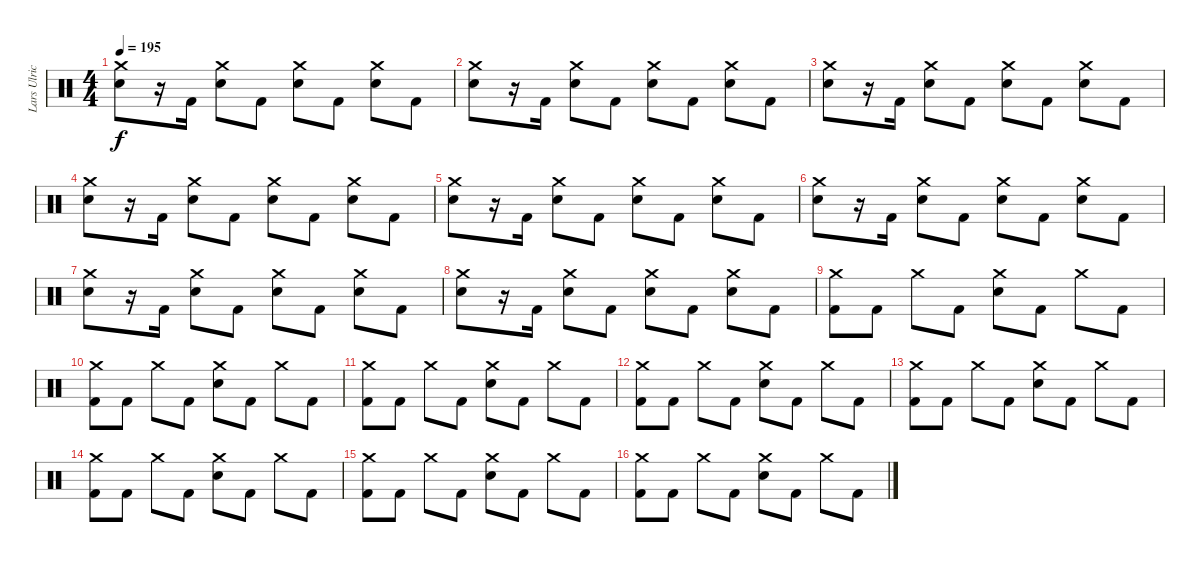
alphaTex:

\track ("Lars Ulrich" "Lars Ulric") {instrument percussion}
\staff {score}
\articulation defaults
\ts (4 4)
\tempo 195
\clef neutral
\ks c
("Crash medium (hit)" "Electric Snare (hit)").8{dy f} r.16 "Kick (hit) 2".16 ("Crash medium (hit)" "Electric Snare (hit)").8 "Kick (hit) 2".8 ("Crash medium (hit)" "Electric Snare (hit)").8 "Kick (hit) 2".8 ("Crash medium (hit)" "Electric Snare (hit)").8 "Kick (hit) 2".8 |
("Crash medium (hit)" "Electric Snare (hit)").8 r.16 "Kick (hit) 2".16 ("Crash medium (hit)" "Electric Snare (hit)").8 "Kick (hit) 2".8 ("Crash medium (hit)" "Electric Snare (hit)").8 "Kick (hit) 2".8 ("Crash medium (hit)" "Electric Snare (hit)").8 "Kick (hit) 2".8 |
("Crash medium (hit)" "Electric Snare (hit)").8 r.16 "Kick (hit) 2".16 ("Crash medium (hit)" "Electric Snare (hit)").8 "Kick (hit) 2".8 ("Crash medium (hit)" "Electric Snare (hit)").8 "Kick (hit) 2".8 ("Crash medium (hit)" "Electric Snare (hit)").8 "Kick (hit) 2".8 |
("Crash medium (hit)" "Electric Snare (hit)").8 r.16 "Kick (hit) 2".16 ("Crash medium (hit)" "Electric Snare (hit)").8 "Kick (hit) 2".8 ("Crash medium (hit)" "Electric Snare (hit)").8 "Kick (hit) 2".8 ("Crash medium (hit)" "Electric Snare (hit)").8 "Kick (hit) 2".8 |
("Crash medium (hit)" "Electric Snare (hit)").8 r.16 "Kick (hit) 2".16 ("Crash medium (hit)" "Electric Snare (hit)").8 "Kick (hit) 2".8 ("Crash medium (hit)" "Electric Snare (hit)").8 "Kick (hit) 2".8 ("Crash medium (hit)" "Electric Snare (hit)").8 "Kick (hit) 2".8 |
("Crash medium (hit)" "Electric Snare (hit)").8 r.16 "Kick (hit) 2".16 ("Crash medium (hit)" "Electric Snare (hit)").8 "Kick (hit) 2".8 ("Crash medium (hit)" "Electric Snare (hit)").8 "Kick (hit) 2".8 ("Crash medium (hit)" "Electric Snare (hit)").8 "Kick (hit) 2".8 |
("Crash medium (hit)" "Electric Snare (hit)").8 r.16 "Kick (hit) 2".16 ("Crash medium (hit)" "Electric Snare (hit)").8 "Kick (hit) 2".8 ("Crash medium (hit)" "Electric Snare (hit)").8 "Kick (hit) 2".8 ("Crash medium (hit)" "Electric Snare (hit)").8 "Kick (hit) 2".8 |
("Crash medium (hit)" "Electric Snare (hit)").8 r.16 "Kick (hit) 2".16 ("Crash medium (hit)" "Electric Snare (hit)").8 "Kick (hit) 2".8 ("Crash medium (hit)" "Electric Snare (hit)").8 "Kick (hit) 2".8 ("Crash medium (hit)" "Electric Snare (hit)").8 "Kick (hit) 2".8 |
("Crash medium (hit)" "Kick (hit) 2").8 "Kick (hit) 2".8 "Crash medium (hit)".8 "Kick (hit) 2".8 ("Crash medium (hit)" "Electric Snare (hit)").8 "Kick (hit) 2".8 "Crash medium (hit)".8 "Kick (hit) 2".8 |
("Crash medium (hit)" "Kick (hit) 2").8 "Kick (hit) 2".8 "Crash medium (hit)".8 "Kick (hit) 2".8 ("Crash medium (hit)" "Electric Snare (hit)").8 "Kick (hit) 2".8 "Crash medium (hit)".8 "Kick (hit) 2".8 |
("Crash medium (hit)" "Kick (hit) 2").8 "Kick (hit) 2".8 "Crash medium (hit)".8 "Kick (hit) 2".8 ("Crash medium (hit)" "Electric Snare (hit)").8 "Kick (hit) 2".8 "Crash medium (hit)".8 "Kick (hit) 2".8 |
("Crash medium (hit)" "Kick (hit) 2").8 "Kick (hit) 2".8 "Crash medium (hit)".8 "Kick (hit) 2".8 ("Crash medium (hit)" "Electric Snare (hit)").8 "Kick (hit) 2".8 "Crash medium (hit)".8 "Kick (hit) 2".8 |
("Crash medium (hit)" "Kick (hit) 2").8 "Kick (hit) 2".8 "Crash medium (hit)".8 "Kick (hit) 2".8 ("Crash medium (hit)" "Electric Snare (hit)").8 "Kick (hit) 2".8 "Crash medium (hit)".8 "Kick (hit) 2".8 |
("Crash medium (hit)" "Kick (hit) 2").8 "Kick (hit) 2".8 "Crash medium (hit)".8 "Kick (hit) 2".8 ("Crash medium (hit)" "Electric Snare (hit)").8 "Kick (hit) 2".8 "Crash medium (hit)".8 "Kick (hit) 2".8 |
("Crash medium (hit)" "Kick (hit) 2").8 "Kick (hit) 2".8 "Crash medium (hit)".8 "Kick (hit) 2".8 ("Crash medium (hit)" "Electric Snare (hit)").8 "Kick (hit) 2".8 "Crash medium (hit)".8 "Kick (hit) 2".8 |
("Crash medium (hit)" "Kick (hit) 2").8 "Kick (hit) 2".8 "Crash medium (hit)".8 "Kick (hit) 2".8 ("Crash medium (hit)" "Electric Snare (hit)").8 "Kick (hit) 2".8 "Crash medium (hit)".8 "Kick (hit) 2".8
